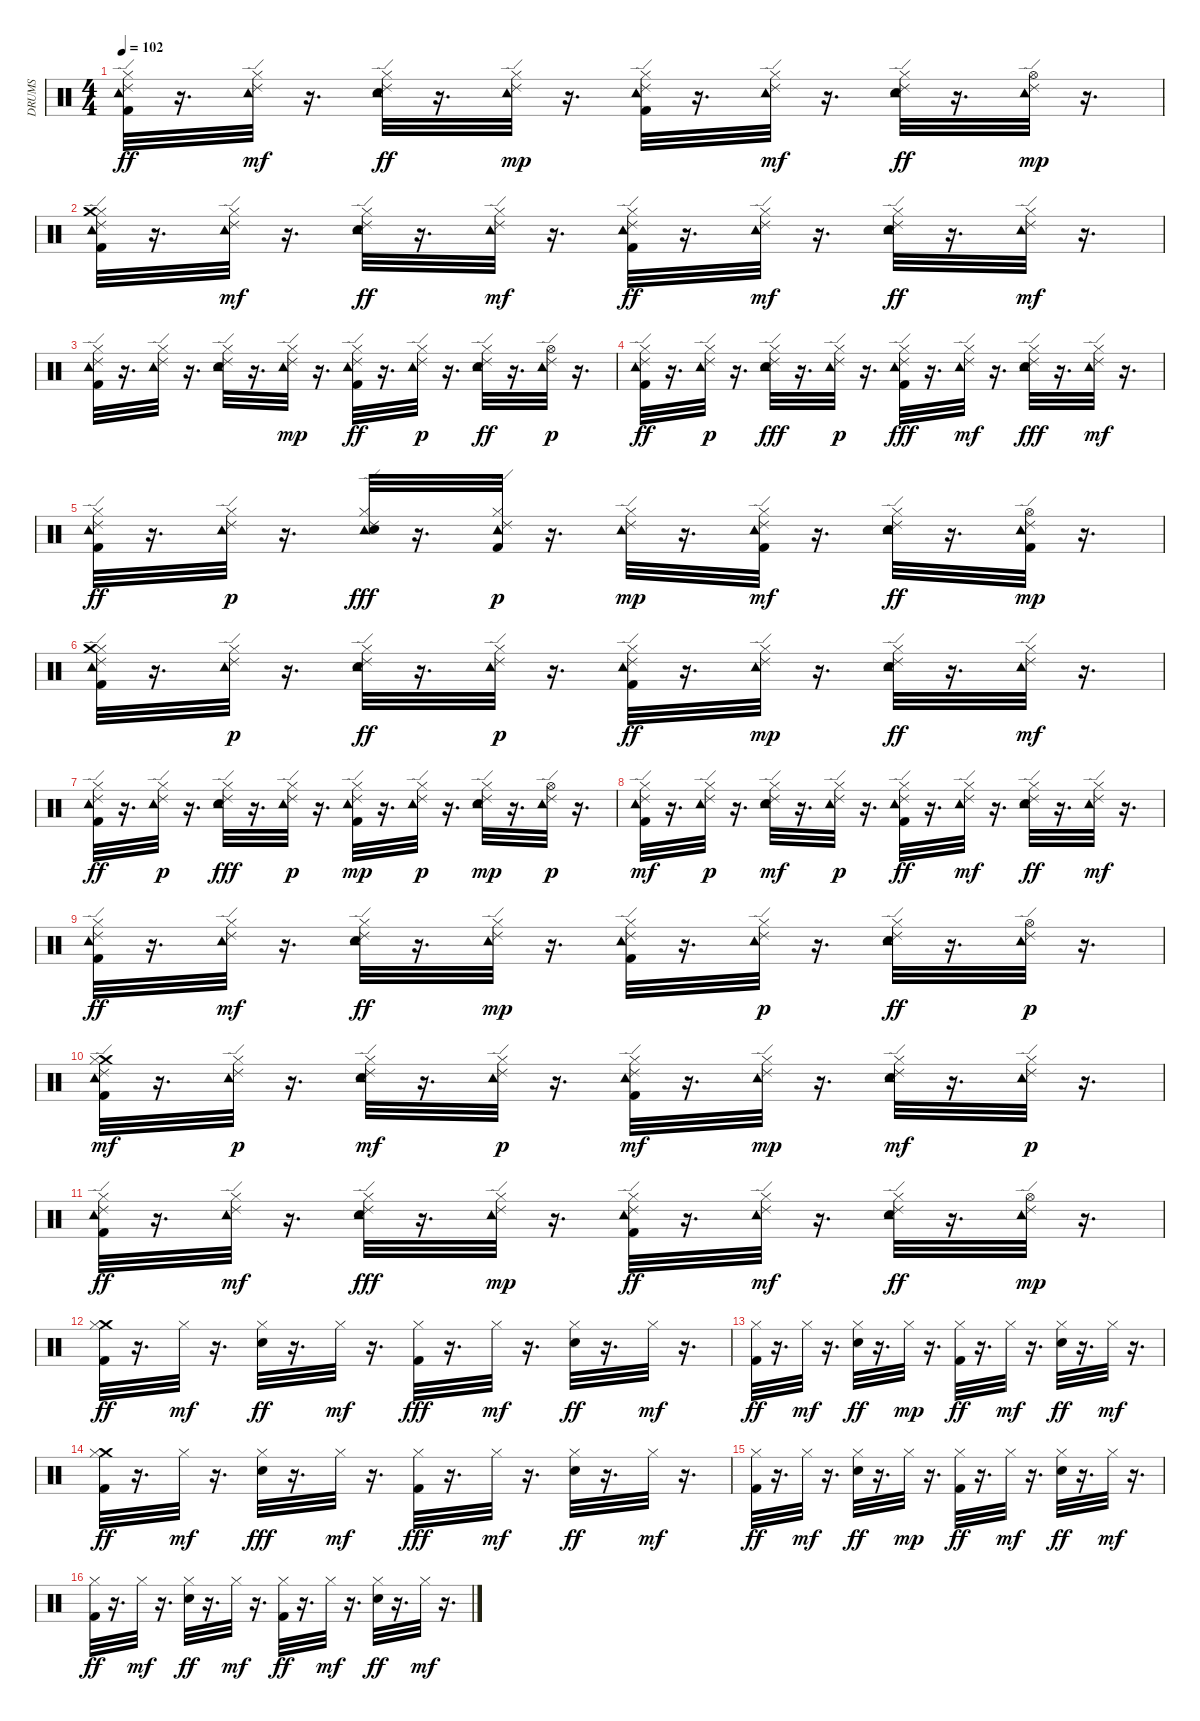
\track ("DRUMS" "DRUMS") {instrument percussion}
\staff {score}
\articulation defaults
\ts (4 4)
\tempo 102
\clef neutral
\ks c
("Ride (edge) 2" "Tambourine (hit)" "Hi-Hat (closed)" "Kick (hit) 2").32{dy ff} r.16{d} ("Tambourine (hit)" "Hi-Hat (closed)" "Ride (edge) 2").32{dy mf} r.16{d} ("Ride (edge) 2" "Tambourine (hit)" "Hi-Hat (closed)" "Electric Snare (hit)").32{dy ff} r.16{d} ("Tambourine (hit)" "Hi-Hat (closed)" "Ride (edge) 2").32{dy mp} r.16{d} ("Hi-Hat (closed)" "Ride (edge) 2" "Kick (hit) 2" "Tambourine (hit)").32 r.16{d} ("Tambourine (hit)" "Hi-Hat (closed)" "Ride (edge) 2").32{dy mf} r.16{d} ("Tambourine (hit)" "Hi-Hat (closed)" "Ride (edge) 2" "Electric Snare (hit)").32{dy ff} r.16{d} ("Tambourine (hit)" "Hi-Hat (open)" "Ride (edge) 2").32{dy mp} r.16{d} |
("Tambourine (hit)" "Ride (edge) 2" "Kick (hit) 2" "Hi-Hat (closed)" "Crash medium (hit)").32 r.16{d} ("Tambourine (hit)" "Hi-Hat (closed)" "Ride (edge) 2").32{dy mf} r.16{d} ("Electric Snare (hit)" "Ride (edge) 2" "Tambourine (hit)" "Hi-Hat (closed)").32{dy ff} r.16{d} ("Tambourine (hit)" "Hi-Hat (closed)" "Ride (edge) 2").32{dy mf} r.16{d} ("Kick (hit) 2" "Ride (edge) 2" "Tambourine (hit)" "Hi-Hat (closed)").32{dy ff} r.16{d} ("Tambourine (hit)" "Hi-Hat (closed)" "Ride (edge) 2").32{dy mf} r.16{d} ("Electric Snare (hit)" "Ride (edge) 2" "Tambourine (hit)" "Hi-Hat (closed)").32{dy ff} r.16{d} ("Tambourine (hit)" "Hi-Hat (closed)" "Ride (edge) 2").32{dy mf} r.16{d} |
("Ride (edge) 2" "Hi-Hat (closed)" "Kick (hit) 2" "Tambourine (hit)").32 r.16{d} ("Ride (edge) 2" "Tambourine (hit)" "Hi-Hat (closed)").32 r.16{d} ("Ride (edge) 2" "Hi-Hat (closed)" "Electric Snare (hit)" "Tambourine (hit)").32 r.16{d} ("Ride (edge) 2" "Tambourine (hit)" "Hi-Hat (closed)").32{dy mp} r.16{d} ("Tambourine (hit)" "Kick (hit) 2" "Ride (edge) 2" "Hi-Hat (closed)").32{dy ff} r.16{d} ("Hi-Hat (closed)" "Ride (edge) 2" "Tambourine (hit)").32{dy p} r.16{d} ("Hi-Hat (closed)" "Ride (edge) 2" "Tambourine (hit)" "Electric Snare (hit)").32{dy ff} r.16{d} ("Hi-Hat (open)" "Ride (edge) 2" "Tambourine (hit)").32{dy p} r.16{d} |
("Hi-Hat (closed)" "Ride (edge) 2" "Tambourine (hit)" "Kick (hit) 2").32{dy ff} r.16{d} ("Hi-Hat (closed)" "Ride (edge) 2" "Tambourine (hit)").32{dy p} r.16{d} ("Hi-Hat (closed)" "Ride (edge) 2" "Tambourine (hit)" "Electric Snare (hit)").32{dy fff} r.16{d} ("Hi-Hat (closed)" "Ride (edge) 2" "Tambourine (hit)").32{dy p} r.16{d} ("Hi-Hat (closed)" "Ride (edge) 2" "Tambourine (hit)" "Kick (hit) 2").32{dy fff} r.16{d} ("Tambourine (hit)" "Hi-Hat (closed)" "Ride (edge) 2").32{dy mf} r.16{d} ("Tambourine (hit)" "Hi-Hat (closed)" "Ride (edge) 2" "Electric Snare (hit)").32{dy fff} r.16{d} ("Tambourine (hit)" "Hi-Hat (closed)" "Ride (edge) 2").32{dy mf} r.16{d} |
("Ride (edge) 2" "Tambourine (hit)" "Kick (hit) 2" "Hi-Hat (closed)").32{dy ff} r.16{d} ("Hi-Hat (closed)" "Ride (edge) 2" "Tambourine (hit)").32{dy p} r.16{d} ("Ride (edge) 2" "Tambourine (hit)" "Hi-Hat (closed)" "Electric Snare (hit)").32{dy fff} r.16{d} ("Kick (hit) 2" "Hi-Hat (closed)" "Tambourine (hit)" "Ride (edge) 2").32{dy p} r.16{d} ("Hi-Hat (closed)" "Ride (edge) 2" "Tambourine (hit)").32{dy mp} r.16{d} ("Tambourine (hit)" "Kick (hit) 2" "Ride (edge) 2" "Hi-Hat (closed)").32{dy mf} r.16{d} ("Hi-Hat (closed)" "Ride (edge) 2" "Tambourine (hit)" "Electric Snare (hit)").32{dy ff} r.16{d} ("Tambourine (hit)" "Kick (hit) 2" "Ride (edge) 2" "Hi-Hat (open)").32{dy mp} r.16{d} |
("Tambourine (hit)" "Ride (edge) 2" "Hi-Hat (closed)" "Kick (hit) 2" "Crash medium (hit)").32 r.16{d} ("Hi-Hat (closed)" "Tambourine (hit)" "Ride (edge) 2").32{dy p} r.16{d} ("Tambourine (hit)" "Electric Snare (hit)" "Ride (edge) 2" "Hi-Hat (closed)").32{dy ff} r.16{d} ("Hi-Hat (closed)" "Tambourine (hit)" "Ride (edge) 2").32{dy p} r.16{d} ("Tambourine (hit)" "Kick (hit) 2" "Ride (edge) 2" "Hi-Hat (closed)").32{dy ff} r.16{d} ("Hi-Hat (closed)" "Tambourine (hit)" "Ride (edge) 2").32{dy mp} r.16{d} ("Tambourine (hit)" "Electric Snare (hit)" "Ride (edge) 2" "Hi-Hat (closed)").32{dy ff} r.16{d} ("Tambourine (hit)" "Hi-Hat (closed)" "Ride (edge) 2").32{dy mf} r.16{d} |
("Ride (edge) 2" "Tambourine (hit)" "Hi-Hat (closed)" "Kick (hit) 2").32{dy ff} r.16{d} ("Hi-Hat (closed)" "Ride (edge) 2" "Tambourine (hit)").32{dy p} r.16{d} ("Ride (edge) 2" "Tambourine (hit)" "Hi-Hat (closed)" "Electric Snare (hit)").32{dy fff} r.16{d} ("Hi-Hat (closed)" "Ride (edge) 2" "Tambourine (hit)").32{dy p} r.16{d} ("Hi-Hat (closed)" "Ride (edge) 2" "Kick (hit) 2" "Tambourine (hit)").32{dy mp} r.16{d} ("Hi-Hat (closed)" "Ride (edge) 2" "Tambourine (hit)").32{dy p} r.16{d} ("Hi-Hat (closed)" "Ride (edge) 2" "Electric Snare (hit)" "Tambourine (hit)").32{dy mp} r.16{d} ("Hi-Hat (open)" "Ride (edge) 2" "Tambourine (hit)").32{dy p} r.16{d} |
("Hi-Hat (closed)" "Ride (edge) 2" "Kick (hit) 2" "Tambourine (hit)").32{dy mf} r.16{d} ("Hi-Hat (closed)" "Ride (edge) 2" "Tambourine (hit)").32{dy p} r.16{d} ("Hi-Hat (closed)" "Ride (edge) 2" "Electric Snare (hit)" "Tambourine (hit)").32{dy mf} r.16{d} ("Hi-Hat (closed)" "Ride (edge) 2" "Tambourine (hit)").32{dy p} r.16{d} ("Tambourine (hit)" "Kick (hit) 2" "Ride (edge) 2" "Hi-Hat (closed)").32{dy ff} r.16{d} ("Tambourine (hit)" "Hi-Hat (closed)" "Ride (edge) 2").32{dy mf} r.16{d} ("Tambourine (hit)" "Hi-Hat (closed)" "Electric Snare (hit)" "Ride (edge) 2").32{dy ff} r.16{d} ("Tambourine (hit)" "Hi-Hat (closed)" "Ride (edge) 2").32{dy mf} r.16{d} |
("Hi-Hat (closed)" "Ride (edge) 2" "Tambourine (hit)" "Kick (hit) 2").32{dy ff} r.16{d} ("Ride (edge) 2" "Tambourine (hit)" "Hi-Hat (closed)").32{dy mf} r.16{d} ("Hi-Hat (closed)" "Ride (edge) 2" "Tambourine (hit)" "Electric Snare (hit)").32{dy ff} r.16{d} ("Ride (edge) 2" "Tambourine (hit)" "Hi-Hat (closed)").32{dy mp} r.16{d} ("Hi-Hat (closed)" "Ride (edge) 2" "Kick (hit) 2" "Tambourine (hit)").32 r.16{d} ("Hi-Hat (closed)" "Ride (edge) 2" "Tambourine (hit)").32{dy p} r.16{d} ("Tambourine (hit)" "Hi-Hat (closed)" "Ride (edge) 2" "Electric Snare (hit)").32{dy ff} r.16{d} ("Hi-Hat (open)" "Ride (edge) 2" "Tambourine (hit)").32{dy p} r.16{d} |
("Crash medium (hit)" "Hi-Hat (closed)" "Kick (hit) 2" "Ride (edge) 2" "Tambourine (hit)").32{dy mf} r.16{d} ("Hi-Hat (closed)" "Ride (edge) 2" "Tambourine (hit)").32{dy p} r.16{d} ("Hi-Hat (closed)" "Ride (edge) 2" "Electric Snare (hit)" "Tambourine (hit)").32{dy mf} r.16{d} ("Hi-Hat (closed)" "Ride (edge) 2" "Tambourine (hit)").32{dy p} r.16{d} ("Hi-Hat (closed)" "Ride (edge) 2" "Kick (hit) 2" "Tambourine (hit)").32{dy mf} r.16{d} ("Hi-Hat (closed)" "Ride (edge) 2" "Tambourine (hit)").32{dy mp} r.16{d} ("Hi-Hat (closed)" "Ride (edge) 2" "Electric Snare (hit)" "Tambourine (hit)").32{dy mf} r.16{d} ("Hi-Hat (closed)" "Ride (edge) 2" "Tambourine (hit)").32{dy p} r.16{d} |
("Ride (edge) 2" "Tambourine (hit)" "Hi-Hat (closed)" "Kick (hit) 2").32{dy ff} r.16{d} ("Tambourine (hit)" "Hi-Hat (closed)" "Ride (edge) 2").32{dy mf} r.16{d} ("Ride (edge) 2" "Tambourine (hit)" "Hi-Hat (closed)" "Electric Snare (hit)").32{dy fff} r.16{d} ("Tambourine (hit)" "Hi-Hat (closed)" "Ride (edge) 2").32{dy mp} r.16{d} ("Tambourine (hit)" "Kick (hit) 2" "Ride (edge) 2" "Hi-Hat (closed)").32{dy ff} r.16{d} ("Tambourine (hit)" "Hi-Hat (closed)" "Ride (edge) 2").32{dy mf} r.16{d} ("Tambourine (hit)" "Hi-Hat (closed)" "Ride (edge) 2" "Electric Snare (hit)").32{dy ff} r.16{d} ("Tambourine (hit)" "Hi-Hat (open)" "Ride (edge) 2").32{dy mp} r.16{d} |
("Crash medium (hit)" "Kick (hit) 2" "Hi-Hat (closed)").32{dy ff} r.16{d} "Hi-Hat (closed)".32{dy mf} r.16{d} ("Electric Snare (hit)" "Hi-Hat (closed)").32{dy ff} r.16{d} "Hi-Hat (closed)".32{dy mf} r.16{d} ("Hi-Hat (closed)" "Kick (hit) 2").32{dy fff} r.16{d} "Hi-Hat (closed)".32{dy mf} r.16{d} ("Electric Snare (hit)" "Hi-Hat (closed)").32{dy ff} r.16{d} "Hi-Hat (closed)".32{dy mf} r.16{d} |
("Kick (hit) 2" "Hi-Hat (closed)").32{dy ff} r.16{d} "Hi-Hat (closed)".32{dy mf} r.16{d} ("Electric Snare (hit)" "Hi-Hat (closed)").32{dy ff} r.16{d} "Hi-Hat (closed)".32{dy mp} r.16{d} ("Kick (hit) 2" "Hi-Hat (closed)").32{dy ff} r.16{d} "Hi-Hat (closed)".32{dy mf} r.16{d} ("Electric Snare (hit)" "Hi-Hat (closed)").32{dy ff} r.16{d} "Hi-Hat (closed)".32{dy mf} r.16{d} |
("Kick (hit) 2" "Crash medium (hit)" "Hi-Hat (closed)").32{dy ff} r.16{d} "Hi-Hat (closed)".32{dy mf} r.16{d} ("Hi-Hat (closed)" "Electric Snare (hit)").32{dy fff} r.16{d} "Hi-Hat (closed)".32{dy mf} r.16{d} ("Hi-Hat (closed)" "Kick (hit) 2").32{dy fff} r.16{d} "Hi-Hat (closed)".32{dy mf} r.16{d} ("Hi-Hat (closed)" "Electric Snare (hit)").32{dy ff} r.16{d} "Hi-Hat (closed)".32{dy mf} r.16{d} |
("Hi-Hat (closed)" "Kick (hit) 2").32{dy ff} r.16{d} "Hi-Hat (closed)".32{dy mf} r.16{d} ("Hi-Hat (closed)" "Electric Snare (hit)").32{dy ff} r.16{d} "Hi-Hat (closed)".32{dy mp} r.16{d} ("Kick (hit) 2" "Hi-Hat (closed)").32{dy ff} r.16{d} "Hi-Hat (closed)".32{dy mf} r.16{d} ("Electric Snare (hit)" "Hi-Hat (closed)").32{dy ff} r.16{d} "Hi-Hat (closed)".32{dy mf} r.16{d} |
("Hi-Hat (closed)" "Kick (hit) 2").32{dy ff} r.16{d} "Hi-Hat (closed)".32{dy mf} r.16{d} ("Electric Snare (hit)" "Hi-Hat (closed)").32{dy ff} r.16{d} "Hi-Hat (closed)".32{dy mf} r.16{d} ("Kick (hit) 2" "Hi-Hat (closed)").32{dy ff} r.16{d} "Hi-Hat (closed)".32{dy mf} r.16{d} ("Electric Snare (hit)" "Hi-Hat (closed)").32{dy ff} r.16{d} "Hi-Hat (closed)".32{dy mf} r.16{d}
